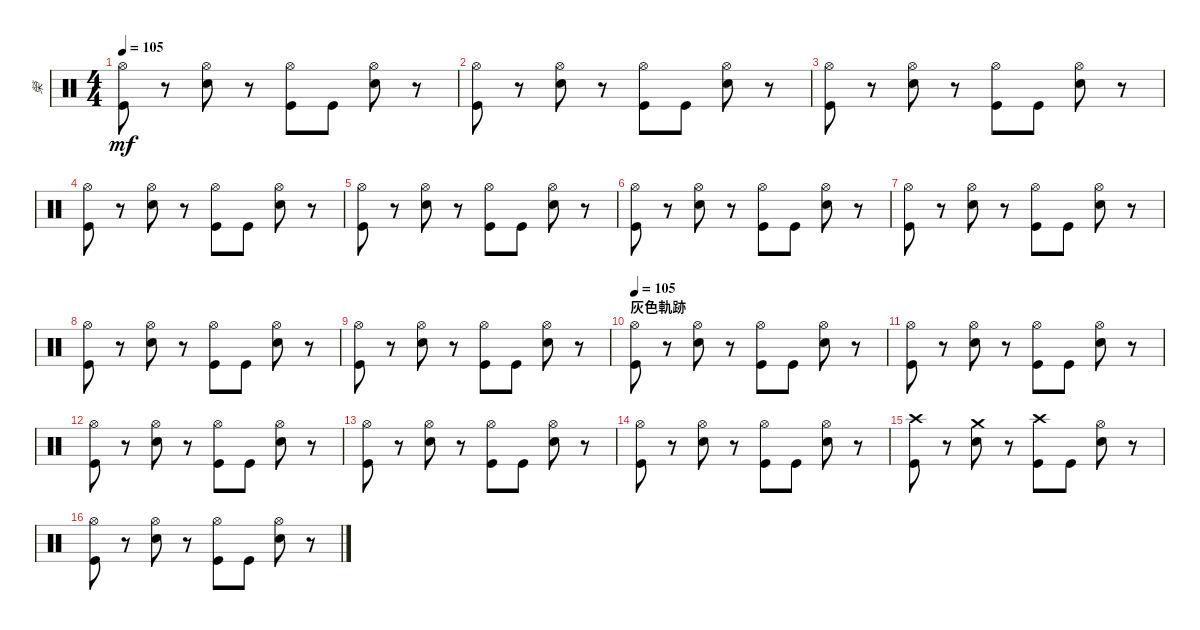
\track ("榮" "榮") {instrument percussion}
\staff {score}
\articulation defaults
\ts (4 4)
\tempo 105
\clef neutral
\ks c
("Hi-Hat (open)" "Kick (hit)").8{dy mf} r.8 ("Hi-Hat (open)" "Snare (hit) 2").8 r.8 ("Hi-Hat (open)" "Kick (hit)").8 "Kick (hit)".8 ("Hi-Hat (open)" "Snare (hit) 2").8 r.8 |
("Hi-Hat (open)" "Kick (hit)").8 r.8 ("Hi-Hat (open)" "Snare (hit) 2").8 r.8 ("Hi-Hat (open)" "Kick (hit)").8 "Kick (hit)".8 ("Hi-Hat (open)" "Snare (hit) 2").8 r.8 |
("Hi-Hat (open)" "Kick (hit)").8 r.8 ("Hi-Hat (open)" "Snare (hit) 2").8 r.8 ("Hi-Hat (open)" "Kick (hit)").8 "Kick (hit)".8 ("Hi-Hat (open)" "Snare (hit) 2").8 r.8 |
("Hi-Hat (open)" "Kick (hit)").8 r.8 ("Hi-Hat (open)" "Snare (hit) 2").8 r.8 ("Hi-Hat (open)" "Kick (hit)").8 "Kick (hit)".8 ("Hi-Hat (open)" "Snare (hit) 2").8 r.8 |
("Hi-Hat (open)" "Kick (hit)").8 r.8 ("Hi-Hat (open)" "Snare (hit) 2").8 r.8 ("Hi-Hat (open)" "Kick (hit)").8 "Kick (hit)".8 ("Hi-Hat (open)" "Snare (hit) 2").8 r.8 |
("Hi-Hat (open)" "Kick (hit)").8 r.8 ("Hi-Hat (open)" "Snare (hit) 2").8 r.8 ("Hi-Hat (open)" "Kick (hit)").8 "Kick (hit)".8 ("Hi-Hat (open)" "Snare (hit) 2").8 r.8 |
("Hi-Hat (open)" "Kick (hit)").8 r.8 ("Hi-Hat (open)" "Snare (hit) 2").8 r.8 ("Hi-Hat (open)" "Kick (hit)").8 "Kick (hit)".8 ("Hi-Hat (open)" "Snare (hit) 2").8 r.8 |
("Hi-Hat (open)" "Kick (hit)").8 r.8 ("Hi-Hat (open)" "Snare (hit) 2").8 r.8 ("Hi-Hat (open)" "Kick (hit)").8 "Kick (hit)".8 ("Hi-Hat (open)" "Snare (hit) 2").8 r.8 |
("Hi-Hat (open)" "Kick (hit)").8 r.8 ("Hi-Hat (open)" "Snare (hit) 2").8 r.8 ("Hi-Hat (open)" "Kick (hit)").8 "Kick (hit)".8 ("Hi-Hat (open)" "Snare (hit) 2").8 r.8 |
\section ("" "灰色軌跡")
\tempo 105
("Hi-Hat (open)" "Kick (hit)").8 r.8 ("Hi-Hat (open)" "Snare (hit) 2").8 r.8 ("Hi-Hat (open)" "Kick (hit)").8 "Kick (hit)".8 ("Hi-Hat (open)" "Snare (hit) 2").8 r.8 |
("Hi-Hat (open)" "Kick (hit)").8 r.8 ("Hi-Hat (open)" "Snare (hit) 2").8 r.8 ("Hi-Hat (open)" "Kick (hit)").8 "Kick (hit)".8 ("Hi-Hat (open)" "Snare (hit) 2").8 r.8 |
("Hi-Hat (open)" "Kick (hit)").8 r.8 ("Hi-Hat (open)" "Snare (hit) 2").8 r.8 ("Hi-Hat (open)" "Kick (hit)").8 "Kick (hit)".8 ("Hi-Hat (open)" "Snare (hit) 2").8 r.8 |
("Hi-Hat (open)" "Kick (hit)").8 r.8 ("Hi-Hat (open)" "Snare (hit) 2").8 r.8 ("Hi-Hat (open)" "Kick (hit)").8 "Kick (hit)".8 ("Hi-Hat (open)" "Snare (hit) 2").8 r.8 |
("Hi-Hat (open)" "Kick (hit)").8 r.8 ("Hi-Hat (open)" "Snare (hit) 2").8 r.8 ("Hi-Hat (open)" "Kick (hit)").8 "Kick (hit)".8 ("Hi-Hat (open)" "Snare (hit) 2").8 r.8 |
("Crash high (hit)" "Kick (hit)").8 r.8 ("Crash medium (hit)" "Snare (hit) 2").8 r.8 ("Crash high (hit)" "Kick (hit)").8 "Kick (hit)".8 ("Hi-Hat (open)" "Snare (hit) 2").8 r.8 |
("Hi-Hat (open)" "Kick (hit)").8 r.8 ("Hi-Hat (open)" "Snare (hit) 2").8 r.8 ("Hi-Hat (open)" "Kick (hit)").8 "Kick (hit)".8 ("Hi-Hat (open)" "Snare (hit) 2").8 r.8
